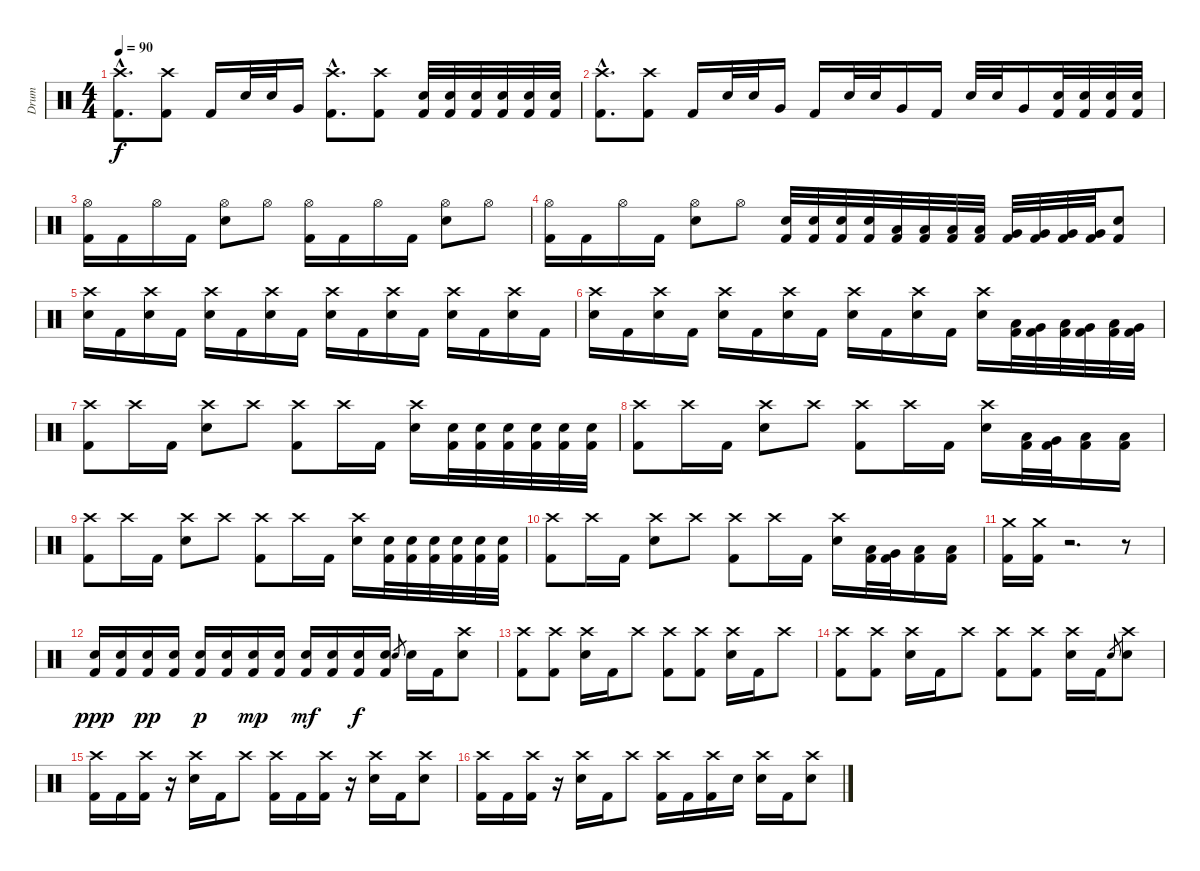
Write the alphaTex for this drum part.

\track ("Drum" "Drum") {instrument percussion}
\staff {score}
\articulation defaults
\ts (4 4)
\tempo 90
\clef neutral
\ks c
("Crash high (hit)"{hac} "Kick (hit) 2"{hac}).8{d dy f} ("Crash high (hit)" "Kick (hit) 2").8 "Kick (hit) 2".16 "Electric Snare (hit)".32 "Electric Snare (hit)".32 "Very Low Tom (hit)".16 ("Crash high (hit)"{hac} "Kick (hit) 2"{hac}).8{d} ("Crash high (hit)" "Kick (hit) 2").8 ("Electric Snare (hit)" "Kick (hit) 2").32 ("Electric Snare (hit)" "Kick (hit) 2").32 ("Electric Snare (hit)" "Kick (hit) 2").32 ("Electric Snare (hit)" "Kick (hit) 2").32 ("Electric Snare (hit)" "Kick (hit) 2").32 ("Electric Snare (hit)" "Kick (hit) 2").32 |
("Crash high (hit)"{hac} "Kick (hit) 2"{hac}).8{d} ("Crash high (hit)" "Kick (hit) 2").8 "Kick (hit) 2".16 "Electric Snare (hit)".32 "Electric Snare (hit)".32 "Very Low Tom (hit)".16 "Kick (hit) 2".16 "Electric Snare (hit)".32 "Electric Snare (hit)".32 "Very Low Tom (hit)".16 "Kick (hit) 2".16 "Electric Snare (hit)".32 "Electric Snare (hit)".32 "Very Low Tom (hit)".16 ("Electric Snare (hit)" "Kick (hit) 2").32 ("Electric Snare (hit)" "Kick (hit) 2").32 ("Electric Snare (hit)" "Kick (hit) 2").32 ("Electric Snare (hit)" "Kick (hit) 2").32 |
("Hi-Hat (open)" "Kick (hit) 2").16 "Kick (hit) 2".16 "Hi-Hat (open)".16 "Kick (hit) 2".16 ("Hi-Hat (open)" "Electric Snare (hit)").8 "Hi-Hat (open)".8 ("Hi-Hat (open)" "Kick (hit) 2").16 "Kick (hit) 2".16 "Hi-Hat (open)".16 "Kick (hit) 2".16 ("Hi-Hat (open)" "Electric Snare (hit)").8 "Hi-Hat (open)".8 |
("Hi-Hat (open)" "Kick (hit) 2").16 "Kick (hit) 2".16 "Hi-Hat (open)".16 "Kick (hit) 2".16 ("Hi-Hat (open)" "Electric Snare (hit)").8 "Hi-Hat (open)".8 ("Electric Snare (hit)" "Kick (hit) 2").32 ("Electric Snare (hit)" "Kick (hit) 2").32 ("Electric Snare (hit)" "Kick (hit) 2").32 ("Electric Snare (hit)" "Kick (hit) 2").32 ("Low Tom (hit)" "Kick (hit) 2").32 ("Low Tom (hit)" "Kick (hit) 2").32 ("Low Tom (hit)" "Kick (hit) 2").32 ("Low Tom (hit)" "Kick (hit) 2").32 ("Very Low Tom (hit)" "Kick (hit) 2").32 ("Very Low Tom (hit)" "Kick (hit) 2").32 ("Very Low Tom (hit)" "Kick (hit) 2").32 ("Very Low Tom (hit)" "Kick (hit) 2").32 ("Electric Snare (hit)" "Kick (hit) 2").8 |
("Crash high (hit)" "Electric Snare (hit)").16 "Kick (hit) 2".16 ("Crash high (hit)" "Electric Snare (hit)").16 "Kick (hit) 2".16 ("Crash high (hit)" "Electric Snare (hit)").16 "Kick (hit) 2".16 ("Crash high (hit)" "Electric Snare (hit)").16 "Kick (hit) 2".16 ("Crash high (hit)" "Electric Snare (hit)").16 "Kick (hit) 2".16 ("Crash high (hit)" "Electric Snare (hit)").16 "Kick (hit) 2".16 ("Crash high (hit)" "Electric Snare (hit)").16 "Kick (hit) 2".16 ("Crash high (hit)" "Electric Snare (hit)").16 "Kick (hit) 2".16 |
("Crash high (hit)" "Electric Snare (hit)").16 "Kick (hit) 2".16 ("Crash high (hit)" "Electric Snare (hit)").16 "Kick (hit) 2".16 ("Crash high (hit)" "Electric Snare (hit)").16 "Kick (hit) 2".16 ("Crash high (hit)" "Electric Snare (hit)").16 "Kick (hit) 2".16 ("Crash high (hit)" "Electric Snare (hit)").16 "Kick (hit) 2".16 ("Crash high (hit)" "Electric Snare (hit)").16 "Kick (hit) 2".16 ("Crash high (hit)" "Electric Snare (hit)").16 ("Low Tom (hit)" "Kick (hit) 2").32 ("Very Low Tom (hit)" "Kick (hit) 2").32 ("Low Tom (hit)" "Kick (hit) 2").32 ("Very Low Tom (hit)" "Kick (hit) 2").32 ("Low Floor Tom (hit)" "Kick (hit) 2").32 ("Very Low Tom (hit)" "Kick (hit) 2").32 |
("Crash high (hit)" "Kick (hit) 2").8 "Crash high (hit)".16 "Kick (hit) 2".16 ("Crash high (hit)" "Electric Snare (hit)").8 "Crash high (hit)".8 ("Crash high (hit)" "Kick (hit) 2").8 "Crash high (hit)".16 "Kick (hit) 2".16 ("Crash high (hit)" "Electric Snare (hit)").16 ("Electric Snare (hit)" "Kick (hit) 2").32 ("Electric Snare (hit)" "Kick (hit) 2").32 ("Electric Snare (hit)" "Kick (hit) 2").32 ("Electric Snare (hit)" "Kick (hit) 2").32 ("Electric Snare (hit)" "Kick (hit) 2").32 ("Electric Snare (hit)" "Kick (hit) 2").32 |
("Crash high (hit)" "Kick (hit) 2").8 "Crash high (hit)".16 "Kick (hit) 2".16 ("Crash high (hit)" "Electric Snare (hit)").8 "Crash high (hit)".8 ("Crash high (hit)" "Kick (hit) 2").8 "Crash high (hit)".16 "Kick (hit) 2".16 ("Crash high (hit)" "Electric Snare (hit)").16 ("Low Tom (hit)" "Kick (hit) 2").32 ("Very Low Tom (hit)" "Kick (hit) 2").32 ("Low Floor Tom (hit)" "Kick (hit) 2").16 ("Low Floor Tom (hit)" "Kick (hit) 2").16 |
("Crash high (hit)" "Kick (hit) 2").8 "Crash high (hit)".16 "Kick (hit) 2".16 ("Crash high (hit)" "Electric Snare (hit)").8 "Crash high (hit)".8 ("Crash high (hit)" "Kick (hit) 2").8 "Crash high (hit)".16 "Kick (hit) 2".16 ("Crash high (hit)" "Electric Snare (hit)").16 ("Electric Snare (hit)" "Kick (hit) 2").32 ("Electric Snare (hit)" "Kick (hit) 2").32 ("Electric Snare (hit)" "Kick (hit) 2").32 ("Electric Snare (hit)" "Kick (hit) 2").32 ("Electric Snare (hit)" "Kick (hit) 2").32 ("Electric Snare (hit)" "Kick (hit) 2").32 |
("Crash high (hit)" "Kick (hit) 2").8 "Crash high (hit)".16 "Kick (hit) 2".16 ("Crash high (hit)" "Electric Snare (hit)").8 "Crash high (hit)".8 ("Crash high (hit)" "Kick (hit) 2").8 "Crash high (hit)".16 "Kick (hit) 2".16 ("Crash high (hit)" "Electric Snare (hit)").16 ("Low Tom (hit)" "Kick (hit) 2").32 ("Very Low Tom (hit)" "Kick (hit) 2").32 ("Low Floor Tom (hit)" "Kick (hit) 2").16 ("Low Floor Tom (hit)" "Kick (hit) 2").16 |
("Crash medium (hit)" "Kick (hit) 2").16 ("Crash medium (hit)" "Kick (hit) 2").16 r.2{d} r.8 |
("Electric Snare (hit)" "Kick (hit) 2").16{dy ppp} ("Electric Snare (hit)" "Kick (hit) 2").16 ("Electric Snare (hit)" "Kick (hit) 2").16{dy pp} ("Electric Snare (hit)" "Kick (hit) 2").16 ("Electric Snare (hit)" "Kick (hit) 2").16{dy p} ("Electric Snare (hit)" "Kick (hit) 2").16 ("Electric Snare (hit)" "Kick (hit) 2").16{dy mp} ("Electric Snare (hit)" "Kick (hit) 2").16 ("Electric Snare (hit)" "Kick (hit) 2").16{dy mf} ("Electric Snare (hit)" "Kick (hit) 2").16 ("Electric Snare (hit)" "Kick (hit) 2").16{dy f} ("Electric Snare (hit)" "Kick (hit) 2").16 "Electric Snare (hit)".8{gr} "Electric Snare (hit)".16 "Kick (hit) 2".16 ("Crash high (hit)" "Electric Snare (hit)").8 |
("Crash high (hit)" "Kick (hit) 2").8 ("Crash high (hit)" "Kick (hit) 2").8 ("Crash high (hit)" "Electric Snare (hit)").16 "Kick (hit) 2".16 "Crash high (hit)".8 ("Crash high (hit)" "Kick (hit) 2").8 ("Crash high (hit)" "Kick (hit) 2").8 ("Crash high (hit)" "Electric Snare (hit)").16 "Kick (hit) 2".16 "Crash high (hit)".8 |
("Crash high (hit)" "Kick (hit) 2").8 ("Crash high (hit)" "Kick (hit) 2").8 ("Crash high (hit)" "Electric Snare (hit)").16 "Kick (hit) 2".16 "Crash high (hit)".8 ("Crash high (hit)" "Kick (hit) 2").8 ("Crash high (hit)" "Kick (hit) 2").8 ("Crash high (hit)" "Electric Snare (hit)").16 "Kick (hit) 2".16 "Electric Snare (hit)".8{gr} ("Crash high (hit)" "Electric Snare (hit)").8 |
("Crash high (hit)" "Kick (hit) 2").16 "Kick (hit) 2".16 ("Crash high (hit)" "Kick (hit) 2").16 r.16 ("Crash high (hit)" "Electric Snare (hit)").16 "Kick (hit) 2".16 "Crash high (hit)".8 ("Crash high (hit)" "Kick (hit) 2").16 "Kick (hit) 2".16 ("Crash high (hit)" "Kick (hit) 2").16 r.16 ("Crash high (hit)" "Electric Snare (hit)").16 "Kick (hit) 2".16 ("Crash high (hit)" "Electric Snare (hit)").8 |
("Crash high (hit)" "Kick (hit) 2").16 "Kick (hit) 2".16 ("Crash high (hit)" "Kick (hit) 2").16 r.16 ("Crash high (hit)" "Electric Snare (hit)").16 "Kick (hit) 2".16 "Crash high (hit)".8 ("Crash high (hit)" "Kick (hit) 2").16 "Kick (hit) 2".16 ("Crash high (hit)" "Kick (hit) 2").16 "Electric Snare (hit)".16 ("Crash high (hit)" "Electric Snare (hit)").16 "Kick (hit) 2".16 ("Crash high (hit)" "Electric Snare (hit)").8
